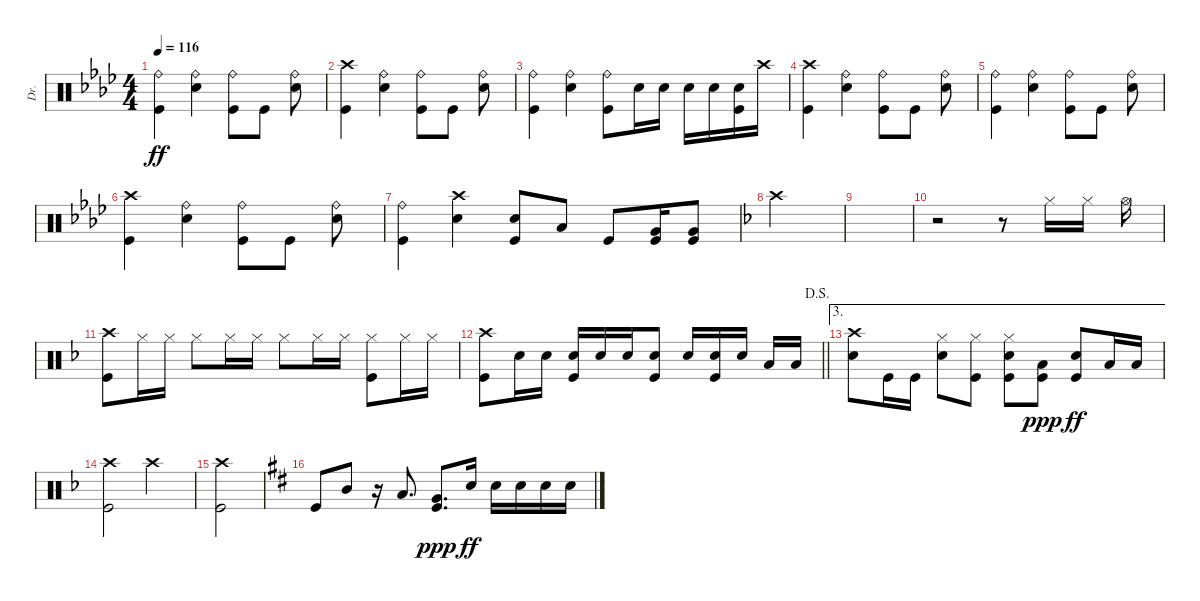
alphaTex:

\track ("Dr." "Dr.") {instrument percussion}
\staff {score}
\articulation defaults
\ts (4 4)
\tempo 116
\clef neutral
\ks ab
("Kick (hit)" "Ride (bell)").4{dy ff} ("Snare (hit) 2" "Ride (bell)").4 ("Kick (hit)" "Ride (bell)").8 "Kick (hit)".8 ("Snare (hit) 2" "Ride (bell)").8 |
("Kick (hit)" "Crash high (hit)").4 ("Snare (hit) 2" "Ride (bell)").4 ("Kick (hit)" "Ride (bell)").8 "Kick (hit)".8 ("Snare (hit) 2" "Ride (bell)").8 |
("Kick (hit)" "Ride (bell)").4 ("Snare (hit) 2" "Ride (bell)").4 ("Kick (hit)" "Ride (bell)").8 "Snare (hit) 2".16 "Snare (hit) 2".16 "Snare (hit) 2".16 "Snare (hit) 2".16 ("Snare (hit) 2" "Kick (hit)").16 "Crash high (hit)".16 |
("Kick (hit)" "Crash high (hit)").4 ("Snare (hit) 2" "Ride (bell)").4 ("Kick (hit)" "Ride (bell)").8 "Kick (hit)".8 ("Snare (hit) 2" "Ride (bell)").8 |
("Kick (hit)" "Ride (bell)").4 ("Snare (hit) 2" "Ride (bell)").4 ("Kick (hit)" "Ride (bell)").8 "Kick (hit)".8 ("Snare (hit) 2" "Ride (bell)").8 |
("Kick (hit)" "Crash high (hit)").4 ("Snare (hit) 2" "Ride (bell)").4 ("Kick (hit)" "Ride (bell)").8 "Kick (hit)".8 ("Snare (hit) 2" "Ride (bell)").8 |
("Kick (hit)" "Ride (bell)").4 ("Crash high (hit)" "Snare (hit) 2").4 ("Kick (hit)" "Snare (hit) 2").8 "Low Tom (hit)".8 "Kick (hit)".8 ("Kick (hit)" "Very Low Tom (hit)").16 ("Kick (hit)" "Very Low Tom (hit)").8 |
\ks f "Crash high (hit)".2
|
|
r.2 r.8 "Hi-Hat (closed)".16 "Hi-Hat (closed)".16 "Hi-Hat (open)".16 |
("Crash high (hit)" "Kick (hit)").8 "Hi-Hat (closed)".16 "Hi-Hat (closed)".16 "Hi-Hat (closed)".8 "Hi-Hat (closed)".16 "Hi-Hat (closed)".16 "Hi-Hat (closed)".8 "Hi-Hat (closed)".16 "Hi-Hat (closed)".16 ("Hi-Hat (closed)" "Kick (hit)").8 "Hi-Hat (closed)".16 "Hi-Hat (closed)".16 |
\jump dalsegno
\barLineRight lightlight
("Crash high (hit)" "Kick (hit)").8 "Snare (hit) 2".16 "Snare (hit) 2".16 ("Snare (hit) 2" "Kick (hit)").16 "Snare (hit) 2".16 "Snare (hit) 2".16 ("Snare (hit) 2" "Kick (hit)").8 "Snare (hit) 2".16 ("Snare (hit) 2" "Kick (hit)").16 "Snare (hit) 2".16 "Low Tom (hit)".16 "Low Tom (hit)".16 |
\ae 3
("Snare (hit) 2" "Crash high (hit)").8 "Kick (hit)".16 "Kick (hit)".16 ("Snare (hit) 2" "Hi-Hat (closed)").8 ("Kick (hit)" "Hi-Hat (closed)").8 ("Snare (hit) 2" "Hi-Hat (closed)" "Kick (hit)").8 ("Kick (hit)" "Low Tom (hit)").8{dy ppp} ("Snare (hit) 2" "Kick (hit)").8{dy ff} "Low Tom (hit)".16 "Low Tom (hit)".16 |
("Kick (hit)" "Crash high (hit)").2 "Crash high (hit)".2 |
("Kick (hit)" "Crash high (hit)").2 |
\ks d "Kick (hit)".8 "Mid Tom (hit)".8
r.16 "Low Tom (hit)".8{d} ("Kick (hit)" "Very Low Tom (hit)").8{d dy ppp} "Snare (hit) 2".16{dy ff} "Snare (hit) 2".16 "Snare (hit) 2".16 "Snare (hit) 2".16 "Snare (hit) 2".16
